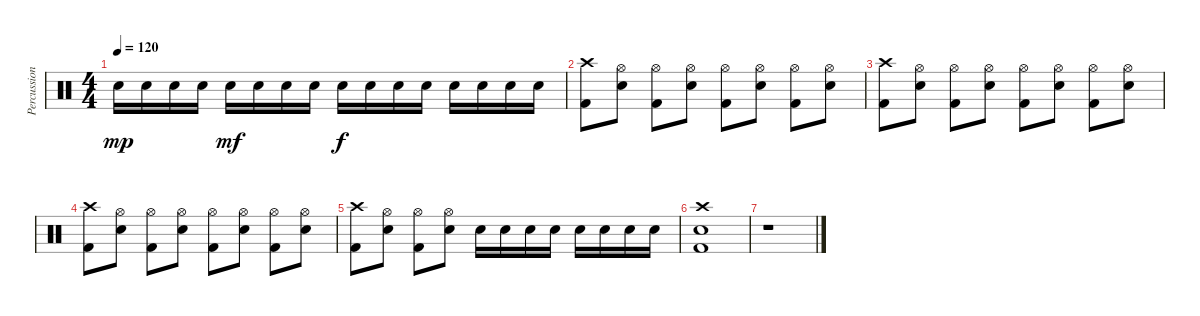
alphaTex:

\track ("Percussion" "Percussion") {instrument percussion}
\staff {score}
\articulation defaults
\ts (4 4)
\tempo 120
\clef neutral
\ks c "Electric Snare (hit)".16{dy mp} "Electric Snare (hit)".16 "Electric Snare (hit)".16 "Electric Snare (hit)".16 "Electric Snare (hit)".16{dy mf} "Electric Snare (hit)".16 "Electric Snare (hit)".16 "Electric Snare (hit)".16 "Electric Snare (hit)".16{dy f} "Electric Snare (hit)".16 "Electric Snare (hit)".16 "Electric Snare (hit)".16 "Electric Snare (hit)".16 "Electric Snare (hit)".16 "Electric Snare (hit)".16 "Electric Snare (hit)".16
|
("Crash high (hit)" "Kick (hit) 2").8 ("Electric Snare (hit)" "Hi-Hat (open)").8 ("Hi-Hat (open)" "Kick (hit) 2").8 ("Electric Snare (hit)" "Hi-Hat (open)").8 ("Hi-Hat (open)" "Kick (hit) 2").8 ("Electric Snare (hit)" "Hi-Hat (open)").8 ("Hi-Hat (open)" "Kick (hit) 2").8 ("Electric Snare (hit)" "Hi-Hat (open)").8 |
("Crash high (hit)" "Kick (hit) 2").8 ("Electric Snare (hit)" "Hi-Hat (open)").8 ("Hi-Hat (open)" "Kick (hit) 2").8 ("Electric Snare (hit)" "Hi-Hat (open)").8 ("Hi-Hat (open)" "Kick (hit) 2").8 ("Electric Snare (hit)" "Hi-Hat (open)").8 ("Hi-Hat (open)" "Kick (hit) 2").8 ("Electric Snare (hit)" "Hi-Hat (open)").8 |
("Crash high (hit)" "Kick (hit) 2").8 ("Electric Snare (hit)" "Hi-Hat (open)").8 ("Hi-Hat (open)" "Kick (hit) 2").8 ("Electric Snare (hit)" "Hi-Hat (open)").8 ("Hi-Hat (open)" "Kick (hit) 2").8 ("Electric Snare (hit)" "Hi-Hat (open)").8 ("Hi-Hat (open)" "Kick (hit) 2").8 ("Electric Snare (hit)" "Hi-Hat (open)").8 |
("Crash high (hit)" "Kick (hit) 2").8 ("Electric Snare (hit)" "Hi-Hat (open)").8 ("Hi-Hat (open)" "Kick (hit) 2").8 ("Electric Snare (hit)" "Hi-Hat (open)").8 "Electric Snare (hit)".16 "Electric Snare (hit)".16 "Electric Snare (hit)".16 "Electric Snare (hit)".16 "Electric Snare (hit)".16 "Electric Snare (hit)".16 "Electric Snare (hit)".16 "Electric Snare (hit)".16 |
("Crash high (hit)" "Electric Snare (hit)" "Kick (hit) 2").1 |
r.1
